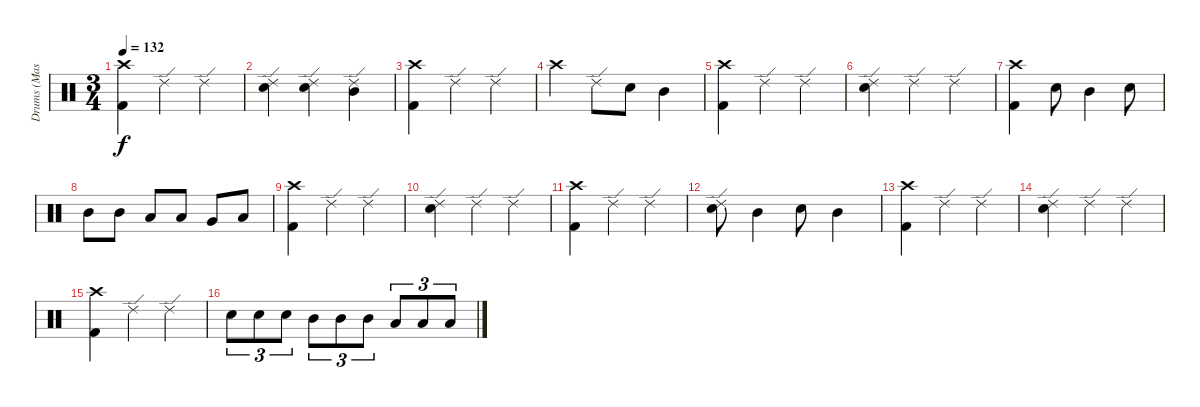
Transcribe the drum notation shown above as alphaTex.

\track ("Drums (Mason)" "Drums (Mas") {instrument percussion}
\staff {score}
\articulation defaults
\ts (3 4)
\section ("" "")
\tempo 132
\clef neutral
\ks c
("Crash high (hit)" "Kick (hit) 2").4{dy f} "Ride (edge) 2".4 "Ride (edge) 2".4 |
("Ride (edge) 2" "Snare (hit) 2").4 ("Ride (edge) 2" "Snare (hit) 2").4 ("Ride (edge) 2" "Mid Tom (hit)").4 |
("Crash high (hit)" "Kick (hit) 2").4 "Ride (edge) 2".4 "Ride (edge) 2".4 |
"Crash high (hit)".4 "Ride (edge) 2".8 "Snare (hit) 2".8 "Mid Tom (hit)".4 |
("Crash high (hit)" "Kick (hit) 2").4 "Ride (edge) 2".4 "Ride (edge) 2".4 |
("Ride (edge) 2" "Snare (hit) 2").4 "Ride (edge) 2".4 "Ride (edge) 2".4 |
("Crash high (hit)" "Kick (hit) 2").4 "Snare (hit) 2".8 "Mid Tom (hit)".4 "Snare (hit) 2".8 |
"Mid Tom (hit)".8 "Mid Tom (hit)".8 "Low Tom (hit)".8 "Low Tom (hit)".8 "Very Low Tom (hit)".8 "Low Floor Tom (hit)".8 |
\section ("" "")
("Crash high (hit)" "Kick (hit) 2").4 "Ride (edge) 2".4 "Ride (edge) 2".4 |
("Ride (edge) 2" "Snare (hit) 2").4 "Ride (edge) 2".4 "Ride (edge) 2".4 |
("Crash high (hit)" "Kick (hit) 2").4 "Ride (edge) 2".4 "Ride (edge) 2".4 |
("Ride (edge) 2" "Snare (hit) 2").8 "Mid Tom (hit)".4 "Snare (hit) 2".8 "Mid Tom (hit)".4 |
("Crash high (hit)" "Kick (hit) 2").4 "Ride (edge) 2".4 "Ride (edge) 2".4 |
("Ride (edge) 2" "Snare (hit) 2").4 "Ride (edge) 2".4 "Ride (edge) 2".4 |
("Crash high (hit)" "Kick (hit) 2").4 "Ride (edge) 2".4 "Ride (edge) 2".4 |
"Snare (hit) 2".8{tu (3 2)} "Snare (hit) 2".8{tu (3 2)} "Snare (hit) 2".8{tu (3 2)} "Mid Tom (hit)".8{tu (3 2)} "Mid Tom (hit)".8{tu (3 2)} "Mid Tom (hit)".8{tu (3 2)} "Low Tom (hit)".8{tu (3 2)} "Low Tom (hit)".8{tu (3 2)} "Low Tom (hit)".8{tu (3 2)}
